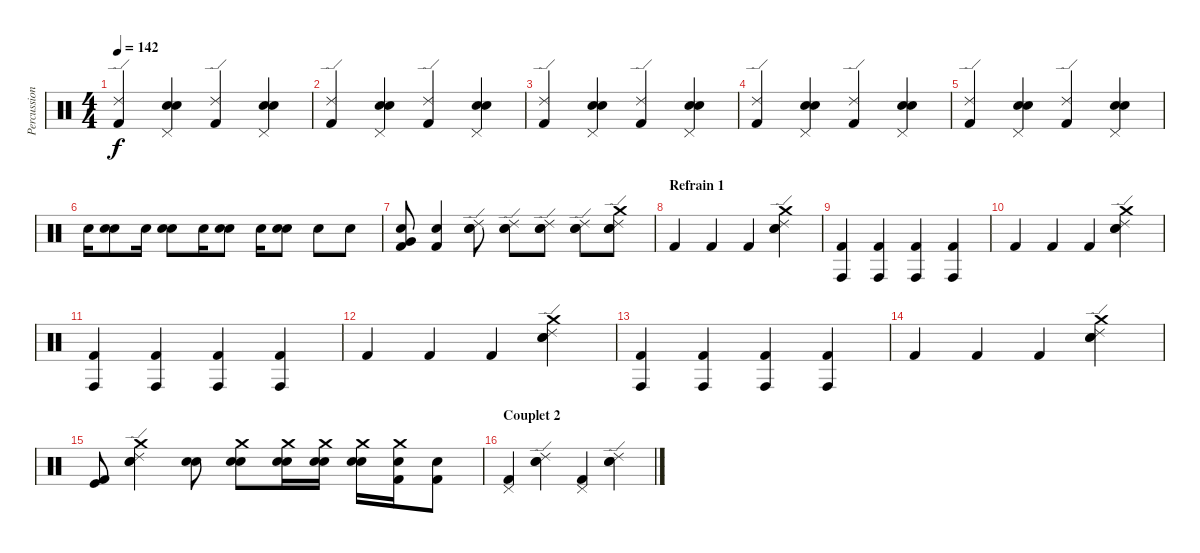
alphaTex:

\track ("Percussions" "Percussion") {instrument percussion}
\staff {score}
\articulation defaults
\ts (4 4)
\tempo 142
\clef neutral
\ks c
("Kick (hit) 2" "Ride (edge) 2").4{dy f} ("Snare (hit) 2" "Electric Snare (hit)" "Pedal Hi-Hat (hit)").4 ("Kick (hit) 2" "Ride (edge) 2").4 ("Snare (hit) 2" "Electric Snare (hit)" "Pedal Hi-Hat (hit)").4 |
("Kick (hit) 2" "Ride (edge) 2").4 ("Snare (hit) 2" "Electric Snare (hit)" "Pedal Hi-Hat (hit)").4 ("Kick (hit) 2" "Ride (edge) 2").4 ("Snare (hit) 2" "Electric Snare (hit)" "Pedal Hi-Hat (hit)").4 |
("Kick (hit) 2" "Ride (edge) 2").4 ("Snare (hit) 2" "Electric Snare (hit)" "Pedal Hi-Hat (hit)").4 ("Kick (hit) 2" "Ride (edge) 2").4 ("Snare (hit) 2" "Electric Snare (hit)" "Pedal Hi-Hat (hit)").4 |
("Kick (hit) 2" "Ride (edge) 2").4 ("Snare (hit) 2" "Electric Snare (hit)" "Pedal Hi-Hat (hit)").4 ("Kick (hit) 2" "Ride (edge) 2").4 ("Snare (hit) 2" "Electric Snare (hit)" "Pedal Hi-Hat (hit)").4 |
("Kick (hit) 2" "Ride (edge) 2").4 ("Snare (hit) 2" "Electric Snare (hit)" "Pedal Hi-Hat (hit)").4 ("Kick (hit) 2" "Ride (edge) 2").4 ("Snare (hit) 2" "Electric Snare (hit)" "Pedal Hi-Hat (hit)").4 |
"Snare (hit) 2".16 ("Snare (hit) 2" "Electric Snare (hit)").8 "Snare (hit) 2".16 ("Snare (hit) 2" "Electric Snare (hit)").8 "Snare (hit) 2".16 ("Snare (hit) 2" "Electric Snare (hit)").8 "Snare (hit) 2".16 ("Snare (hit) 2" "Electric Snare (hit)").8 "Electric Snare (hit)".8 "Electric Snare (hit)".8 |
("Kick (hit) 2" "Very Low Tom (hit)" "Electric Snare (hit)").8 ("Kick (hit) 2" "Electric Snare (hit)").4 ("Snare (hit) 2" "Electric Snare (hit)" "Ride (edge) 2").8 ("Snare (hit) 2" "Electric Snare (hit)" "Ride (edge) 2").8 ("Snare (hit) 2" "Electric Snare (hit)" "Ride (edge) 2").8 ("Snare (hit) 2" "Electric Snare (hit)" "Ride (edge) 2").8 ("Snare (hit) 2" "Electric Snare (hit)" "Ride (edge) 2" "Crash medium (hit)").8 |
\section ("" "Refrain 1")
"Kick (hit) 2".4 "Kick (hit) 2".4 "Kick (hit) 2".4 ("Snare (hit) 2" "Electric Snare (hit)" "Ride (edge) 2" "Crash medium (hit)").4 |
("Kick (hit) 2" "Conga high (hit)").4 ("Kick (hit) 2" "Conga high (hit)").4 ("Kick (hit) 2" "Conga high (hit)").4 ("Kick (hit) 2" "Conga high (hit)").4 |
"Kick (hit) 2".4 "Kick (hit) 2".4 "Kick (hit) 2".4 ("Snare (hit) 2" "Electric Snare (hit)" "Ride (edge) 2" "Crash medium (hit)").4 |
("Kick (hit) 2" "Conga high (hit)").4 ("Kick (hit) 2" "Conga high (hit)").4 ("Kick (hit) 2" "Conga high (hit)").4 ("Kick (hit) 2" "Conga high (hit)").4 |
"Kick (hit) 2".4 "Kick (hit) 2".4 "Kick (hit) 2".4 ("Snare (hit) 2" "Electric Snare (hit)" "Ride (edge) 2" "Crash medium (hit)").4 |
("Kick (hit) 2" "Conga high (hit)").4 ("Kick (hit) 2" "Conga high (hit)").4 ("Kick (hit) 2" "Conga high (hit)").4 ("Kick (hit) 2" "Conga high (hit)").4 |
"Kick (hit) 2".4 "Kick (hit) 2".4 "Kick (hit) 2".4 ("Snare (hit) 2" "Electric Snare (hit)" "Ride (edge) 2" "Crash medium (hit)").4 |
("Kick (hit) 2" "Kick (hit)").8 ("Snare (hit) 2" "Electric Snare (hit)" "Ride (edge) 2" "Crash medium (hit)").4 ("Snare (hit) 2" "Electric Snare (hit)").8 ("Snare (hit) 2" "Electric Snare (hit)" "Crash medium (hit)").8 ("Snare (hit) 2" "Electric Snare (hit)" "Crash medium (hit)").16 ("Snare (hit) 2" "Electric Snare (hit)" "Crash medium (hit)").16 ("Snare (hit) 2" "Electric Snare (hit)" "Crash medium (hit)").16 ("Kick (hit) 2" "Electric Snare (hit)" "Crash medium (hit)").16 ("Kick (hit) 2" "Electric Snare (hit)").8 |
\section ("" "Couplet 2")
("Kick (hit) 2" "Pedal Hi-Hat (hit)").4 ("Snare (hit) 2" "Electric Snare (hit)" "Ride (edge) 2").4 ("Kick (hit) 2" "Pedal Hi-Hat (hit)").4 ("Snare (hit) 2" "Electric Snare (hit)" "Ride (edge) 2").4
